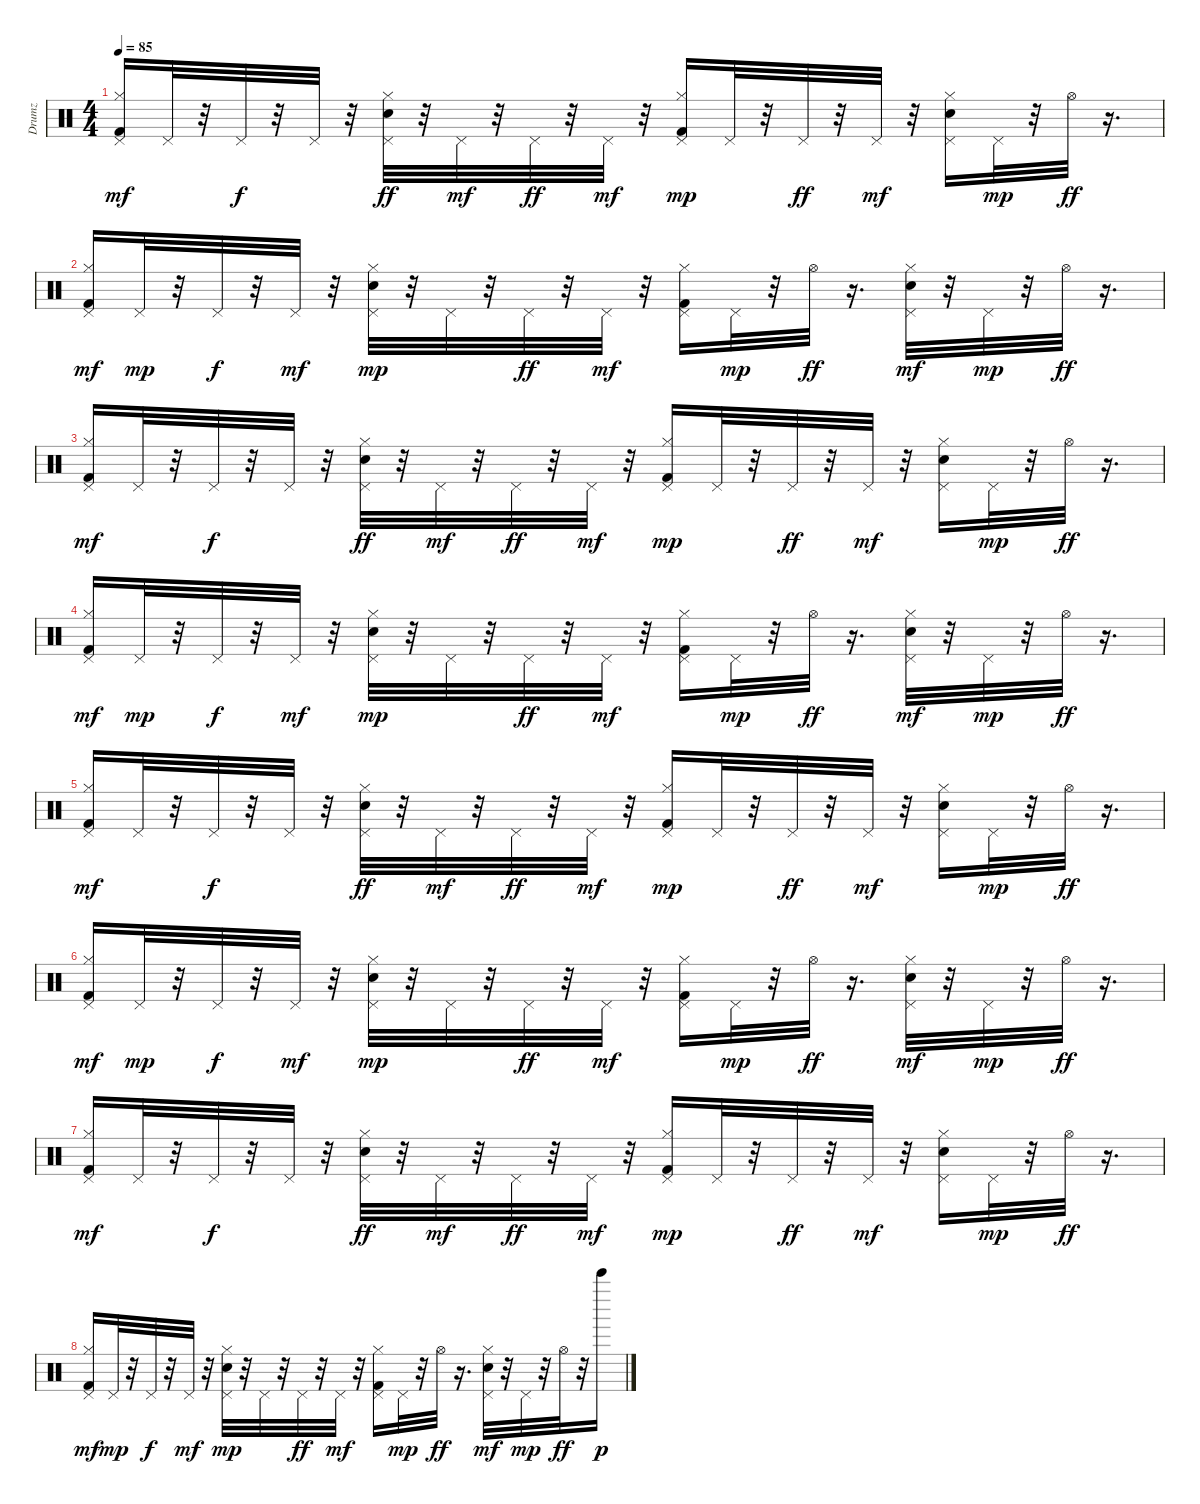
\track ("Drumz" "Drumz") {instrument percussion}
\staff {score}
\articulation defaults
\ts (4 4)
\tempo 85
\clef neutral
\ks c
("Kick (hit) 2" "Hi-Hat (closed)" "Pedal Hi-Hat (hit)").16{dy mf volume 12} "Pedal Hi-Hat (hit)".32 r.32 "Pedal Hi-Hat (hit)".32{dy f} r.32 "Pedal Hi-Hat (hit)".32 r.32 ("Hand Clap (hit)" "Hi-Hat (closed)" "Pedal Hi-Hat (hit)").32{dy ff} r.32 "Pedal Hi-Hat (hit)".32{dy mf} r.32 "Pedal Hi-Hat (hit)".32{dy ff} r.32 "Pedal Hi-Hat (hit)".32{dy mf} r.32 ("Kick (hit) 2" "Hi-Hat (closed)" "Pedal Hi-Hat (hit)").16{dy mp} "Pedal Hi-Hat (hit)".32 r.32 "Pedal Hi-Hat (hit)".32{dy ff} r.32 "Pedal Hi-Hat (hit)".32{dy mf} r.32 ("Hand Clap (hit)" "Hi-Hat (closed)" "Pedal Hi-Hat (hit)").16 "Pedal Hi-Hat (hit)".32{dy mp} r.32 "Hi-Hat (open)".32{dy ff} r.16{d} |
("Kick (hit) 2" "Hi-Hat (closed)" "Pedal Hi-Hat (hit)").16{dy mf} "Pedal Hi-Hat (hit)".32{dy mp} r.32 "Pedal Hi-Hat (hit)".32{dy f} r.32 "Pedal Hi-Hat (hit)".32{dy mf} r.32 ("Hand Clap (hit)" "Hi-Hat (closed)" "Pedal Hi-Hat (hit)").32{dy mp} r.32 "Pedal Hi-Hat (hit)".32 r.32 "Pedal Hi-Hat (hit)".32{dy ff} r.32 "Pedal Hi-Hat (hit)".32{dy mf} r.32 ("Kick (hit) 2" "Hi-Hat (closed)" "Pedal Hi-Hat (hit)").16 "Pedal Hi-Hat (hit)".32{dy mp} r.32 "Hi-Hat (open)".32{dy ff} r.16{d} ("Hand Clap (hit)" "Hi-Hat (closed)" "Pedal Hi-Hat (hit)").32{dy mf} r.32 "Pedal Hi-Hat (hit)".32{dy mp} r.32 "Hi-Hat (open)".32{dy ff} r.16{d} |
("Kick (hit) 2" "Hi-Hat (closed)" "Pedal Hi-Hat (hit)").16{dy mf} "Pedal Hi-Hat (hit)".32 r.32 "Pedal Hi-Hat (hit)".32{dy f} r.32 "Pedal Hi-Hat (hit)".32 r.32 ("Hand Clap (hit)" "Hi-Hat (closed)" "Pedal Hi-Hat (hit)").32{dy ff} r.32 "Pedal Hi-Hat (hit)".32{dy mf} r.32 "Pedal Hi-Hat (hit)".32{dy ff} r.32 "Pedal Hi-Hat (hit)".32{dy mf} r.32 ("Kick (hit) 2" "Hi-Hat (closed)" "Pedal Hi-Hat (hit)").16{dy mp} "Pedal Hi-Hat (hit)".32 r.32 "Pedal Hi-Hat (hit)".32{dy ff} r.32 "Pedal Hi-Hat (hit)".32{dy mf} r.32 ("Hand Clap (hit)" "Hi-Hat (closed)" "Pedal Hi-Hat (hit)").16 "Pedal Hi-Hat (hit)".32{dy mp} r.32 "Hi-Hat (open)".32{dy ff} r.16{d} |
("Kick (hit) 2" "Hi-Hat (closed)" "Pedal Hi-Hat (hit)").16{dy mf} "Pedal Hi-Hat (hit)".32{dy mp} r.32 "Pedal Hi-Hat (hit)".32{dy f} r.32 "Pedal Hi-Hat (hit)".32{dy mf} r.32 ("Hand Clap (hit)" "Hi-Hat (closed)" "Pedal Hi-Hat (hit)").32{dy mp} r.32 "Pedal Hi-Hat (hit)".32 r.32 "Pedal Hi-Hat (hit)".32{dy ff} r.32 "Pedal Hi-Hat (hit)".32{dy mf} r.32 ("Kick (hit) 2" "Hi-Hat (closed)" "Pedal Hi-Hat (hit)").16 "Pedal Hi-Hat (hit)".32{dy mp} r.32 "Hi-Hat (open)".32{dy ff} r.16{d} ("Hand Clap (hit)" "Hi-Hat (closed)" "Pedal Hi-Hat (hit)").32{dy mf} r.32 "Pedal Hi-Hat (hit)".32{dy mp} r.32 "Hi-Hat (open)".32{dy ff} r.16{d} |
("Kick (hit) 2" "Hi-Hat (closed)" "Pedal Hi-Hat (hit)").16{dy mf} "Pedal Hi-Hat (hit)".32 r.32 "Pedal Hi-Hat (hit)".32{dy f} r.32 "Pedal Hi-Hat (hit)".32 r.32 ("Hand Clap (hit)" "Hi-Hat (closed)" "Pedal Hi-Hat (hit)").32{dy ff} r.32 "Pedal Hi-Hat (hit)".32{dy mf} r.32 "Pedal Hi-Hat (hit)".32{dy ff} r.32 "Pedal Hi-Hat (hit)".32{dy mf} r.32 ("Kick (hit) 2" "Hi-Hat (closed)" "Pedal Hi-Hat (hit)").16{dy mp} "Pedal Hi-Hat (hit)".32 r.32 "Pedal Hi-Hat (hit)".32{dy ff} r.32 "Pedal Hi-Hat (hit)".32{dy mf} r.32 ("Hand Clap (hit)" "Hi-Hat (closed)" "Pedal Hi-Hat (hit)").16 "Pedal Hi-Hat (hit)".32{dy mp} r.32 "Hi-Hat (open)".32{dy ff} r.16{d} |
("Kick (hit) 2" "Hi-Hat (closed)" "Pedal Hi-Hat (hit)").16{dy mf} "Pedal Hi-Hat (hit)".32{dy mp} r.32 "Pedal Hi-Hat (hit)".32{dy f} r.32 "Pedal Hi-Hat (hit)".32{dy mf} r.32 ("Hand Clap (hit)" "Hi-Hat (closed)" "Pedal Hi-Hat (hit)").32{dy mp} r.32 "Pedal Hi-Hat (hit)".32 r.32 "Pedal Hi-Hat (hit)".32{dy ff} r.32 "Pedal Hi-Hat (hit)".32{dy mf} r.32 ("Kick (hit) 2" "Hi-Hat (closed)" "Pedal Hi-Hat (hit)").16 "Pedal Hi-Hat (hit)".32{dy mp} r.32 "Hi-Hat (open)".32{dy ff} r.16{d} ("Hand Clap (hit)" "Hi-Hat (closed)" "Pedal Hi-Hat (hit)").32{dy mf} r.32 "Pedal Hi-Hat (hit)".32{dy mp} r.32 "Hi-Hat (open)".32{dy ff} r.16{d} |
("Kick (hit) 2" "Hi-Hat (closed)" "Pedal Hi-Hat (hit)").16{dy mf} "Pedal Hi-Hat (hit)".32 r.32 "Pedal Hi-Hat (hit)".32{dy f} r.32 "Pedal Hi-Hat (hit)".32 r.32 ("Hand Clap (hit)" "Hi-Hat (closed)" "Pedal Hi-Hat (hit)").32{dy ff} r.32 "Pedal Hi-Hat (hit)".32{dy mf} r.32 "Pedal Hi-Hat (hit)".32{dy ff} r.32 "Pedal Hi-Hat (hit)".32{dy mf} r.32 ("Kick (hit) 2" "Hi-Hat (closed)" "Pedal Hi-Hat (hit)").16{dy mp} "Pedal Hi-Hat (hit)".32 r.32 "Pedal Hi-Hat (hit)".32{dy ff} r.32 "Pedal Hi-Hat (hit)".32{dy mf} r.32 ("Hand Clap (hit)" "Hi-Hat (closed)" "Pedal Hi-Hat (hit)").16 "Pedal Hi-Hat (hit)".32{dy mp} r.32 "Hi-Hat (open)".32{dy ff} r.16{d} |
("Kick (hit) 2" "Hi-Hat (closed)" "Pedal Hi-Hat (hit)").16{dy mf} "Pedal Hi-Hat (hit)".32{dy mp} r.32 "Pedal Hi-Hat (hit)".32{dy f} r.32 "Pedal Hi-Hat (hit)".32{dy mf} r.32 ("Hand Clap (hit)" "Hi-Hat (closed)" "Pedal Hi-Hat (hit)").32{dy mp} r.32 "Pedal Hi-Hat (hit)".32 r.32 "Pedal Hi-Hat (hit)".32{dy ff} r.32 "Pedal Hi-Hat (hit)".32{dy mf} r.32 ("Kick (hit) 2" "Hi-Hat (closed)" "Pedal Hi-Hat (hit)").16 "Pedal Hi-Hat (hit)".32{dy mp} r.32 "Hi-Hat (open)".32{dy ff} r.16{d} ("Hand Clap (hit)" "Hi-Hat (closed)" "Pedal Hi-Hat (hit)").32{dy mf} r.32 "Pedal Hi-Hat (hit)".32{dy mp} r.32 "Hi-Hat (open)".32{dy ff} r.32 "Bell Tree (hit)".16{dy p}
